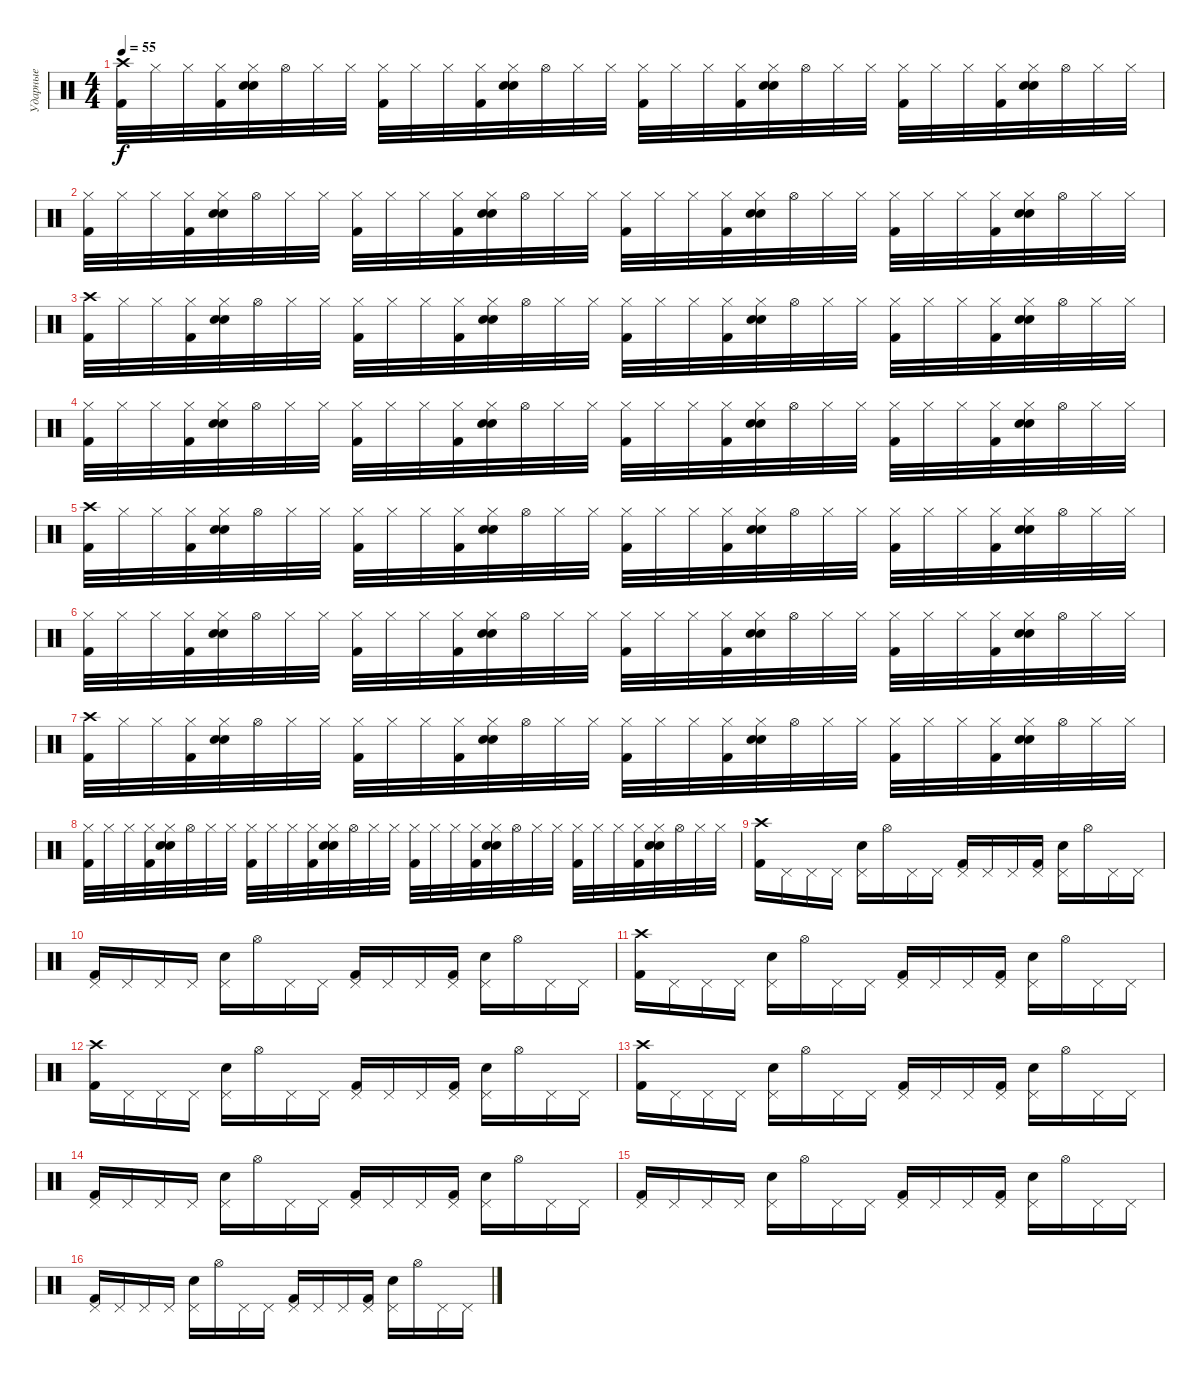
\track ("Ударные" "Ударные") {instrument percussion}
\staff {score}
\articulation defaults
\ts (4 4)
\tempo 55
\clef neutral
\ks c
("Crash high (hit)" "Kick (hit) 2").32{dy f} "Hi-Hat (closed)".32 "Hi-Hat (closed)".32 ("Hi-Hat (closed)" "Kick (hit) 2").32 ("Hi-Hat (closed)" "Snare (hit) 2" "Electric Snare (hit)").32 "Hi-Hat (open)".32 "Hi-Hat (closed)".32 "Hi-Hat (closed)".32 ("Hi-Hat (closed)" "Kick (hit) 2").32 "Hi-Hat (closed)".32 "Hi-Hat (closed)".32 ("Hi-Hat (closed)" "Kick (hit) 2").32 ("Hi-Hat (closed)" "Snare (hit) 2" "Electric Snare (hit)").32 "Hi-Hat (open)".32 "Hi-Hat (closed)".32 "Hi-Hat (closed)".32 ("Hi-Hat (closed)" "Kick (hit) 2").32 "Hi-Hat (closed)".32 "Hi-Hat (closed)".32 ("Hi-Hat (closed)" "Kick (hit) 2").32 ("Hi-Hat (closed)" "Snare (hit) 2" "Electric Snare (hit)").32 "Hi-Hat (open)".32 "Hi-Hat (closed)".32 "Hi-Hat (closed)".32 ("Hi-Hat (closed)" "Kick (hit) 2").32 "Hi-Hat (closed)".32 "Hi-Hat (closed)".32 ("Hi-Hat (closed)" "Kick (hit) 2").32 ("Hi-Hat (closed)" "Snare (hit) 2" "Electric Snare (hit)").32 "Hi-Hat (open)".32 "Hi-Hat (closed)".32 "Hi-Hat (closed)".32 |
("Hi-Hat (closed)" "Kick (hit) 2").32 "Hi-Hat (closed)".32 "Hi-Hat (closed)".32 ("Hi-Hat (closed)" "Kick (hit) 2").32 ("Hi-Hat (closed)" "Snare (hit) 2" "Electric Snare (hit)").32 "Hi-Hat (open)".32 "Hi-Hat (closed)".32 "Hi-Hat (closed)".32 ("Hi-Hat (closed)" "Kick (hit) 2").32 "Hi-Hat (closed)".32 "Hi-Hat (closed)".32 ("Hi-Hat (closed)" "Kick (hit) 2").32 ("Hi-Hat (closed)" "Snare (hit) 2" "Electric Snare (hit)").32 "Hi-Hat (open)".32 "Hi-Hat (closed)".32 "Hi-Hat (closed)".32 ("Hi-Hat (closed)" "Kick (hit) 2").32 "Hi-Hat (closed)".32 "Hi-Hat (closed)".32 ("Hi-Hat (closed)" "Kick (hit) 2").32 ("Hi-Hat (closed)" "Snare (hit) 2" "Electric Snare (hit)").32 "Hi-Hat (open)".32 "Hi-Hat (closed)".32 "Hi-Hat (closed)".32 ("Hi-Hat (closed)" "Kick (hit) 2").32 "Hi-Hat (closed)".32 "Hi-Hat (closed)".32 ("Hi-Hat (closed)" "Kick (hit) 2").32 ("Hi-Hat (closed)" "Snare (hit) 2" "Electric Snare (hit)").32 "Hi-Hat (open)".32 "Hi-Hat (closed)".32 "Hi-Hat (closed)".32 |
("Crash high (hit)" "Kick (hit) 2").32 "Hi-Hat (closed)".32 "Hi-Hat (closed)".32 ("Hi-Hat (closed)" "Kick (hit) 2").32 ("Hi-Hat (closed)" "Snare (hit) 2" "Electric Snare (hit)").32 "Hi-Hat (open)".32 "Hi-Hat (closed)".32 "Hi-Hat (closed)".32 ("Hi-Hat (closed)" "Kick (hit) 2").32 "Hi-Hat (closed)".32 "Hi-Hat (closed)".32 ("Hi-Hat (closed)" "Kick (hit) 2").32 ("Hi-Hat (closed)" "Snare (hit) 2" "Electric Snare (hit)").32 "Hi-Hat (open)".32 "Hi-Hat (closed)".32 "Hi-Hat (closed)".32 ("Hi-Hat (closed)" "Kick (hit) 2").32 "Hi-Hat (closed)".32 "Hi-Hat (closed)".32 ("Hi-Hat (closed)" "Kick (hit) 2").32 ("Hi-Hat (closed)" "Snare (hit) 2" "Electric Snare (hit)").32 "Hi-Hat (open)".32 "Hi-Hat (closed)".32 "Hi-Hat (closed)".32 ("Hi-Hat (closed)" "Kick (hit) 2").32 "Hi-Hat (closed)".32 "Hi-Hat (closed)".32 ("Hi-Hat (closed)" "Kick (hit) 2").32 ("Hi-Hat (closed)" "Snare (hit) 2" "Electric Snare (hit)").32 "Hi-Hat (open)".32 "Hi-Hat (closed)".32 "Hi-Hat (closed)".32 |
("Hi-Hat (closed)" "Kick (hit) 2").32 "Hi-Hat (closed)".32 "Hi-Hat (closed)".32 ("Hi-Hat (closed)" "Kick (hit) 2").32 ("Hi-Hat (closed)" "Snare (hit) 2" "Electric Snare (hit)").32 "Hi-Hat (open)".32 "Hi-Hat (closed)".32 "Hi-Hat (closed)".32 ("Hi-Hat (closed)" "Kick (hit) 2").32 "Hi-Hat (closed)".32 "Hi-Hat (closed)".32 ("Hi-Hat (closed)" "Kick (hit) 2").32 ("Hi-Hat (closed)" "Snare (hit) 2" "Electric Snare (hit)").32 "Hi-Hat (open)".32 "Hi-Hat (closed)".32 "Hi-Hat (closed)".32 ("Hi-Hat (closed)" "Kick (hit) 2").32 "Hi-Hat (closed)".32 "Hi-Hat (closed)".32 ("Hi-Hat (closed)" "Kick (hit) 2").32 ("Hi-Hat (closed)" "Snare (hit) 2" "Electric Snare (hit)").32 "Hi-Hat (open)".32 "Hi-Hat (closed)".32 "Hi-Hat (closed)".32 ("Hi-Hat (closed)" "Kick (hit) 2").32 "Hi-Hat (closed)".32 "Hi-Hat (closed)".32 ("Hi-Hat (closed)" "Kick (hit) 2").32 ("Hi-Hat (closed)" "Snare (hit) 2" "Electric Snare (hit)").32 "Hi-Hat (open)".32 "Hi-Hat (closed)".32 "Hi-Hat (closed)".32 |
("Crash high (hit)" "Kick (hit) 2").32 "Hi-Hat (closed)".32 "Hi-Hat (closed)".32 ("Hi-Hat (closed)" "Kick (hit) 2").32 ("Hi-Hat (closed)" "Snare (hit) 2" "Electric Snare (hit)").32 "Hi-Hat (open)".32 "Hi-Hat (closed)".32 "Hi-Hat (closed)".32 ("Hi-Hat (closed)" "Kick (hit) 2").32 "Hi-Hat (closed)".32 "Hi-Hat (closed)".32 ("Hi-Hat (closed)" "Kick (hit) 2").32 ("Hi-Hat (closed)" "Snare (hit) 2" "Electric Snare (hit)").32 "Hi-Hat (open)".32 "Hi-Hat (closed)".32 "Hi-Hat (closed)".32 ("Hi-Hat (closed)" "Kick (hit) 2").32 "Hi-Hat (closed)".32 "Hi-Hat (closed)".32 ("Hi-Hat (closed)" "Kick (hit) 2").32 ("Hi-Hat (closed)" "Snare (hit) 2" "Electric Snare (hit)").32 "Hi-Hat (open)".32 "Hi-Hat (closed)".32 "Hi-Hat (closed)".32 ("Hi-Hat (closed)" "Kick (hit) 2").32 "Hi-Hat (closed)".32 "Hi-Hat (closed)".32 ("Hi-Hat (closed)" "Kick (hit) 2").32 ("Hi-Hat (closed)" "Snare (hit) 2" "Electric Snare (hit)").32 "Hi-Hat (open)".32 "Hi-Hat (closed)".32 "Hi-Hat (closed)".32 |
("Hi-Hat (closed)" "Kick (hit) 2").32 "Hi-Hat (closed)".32 "Hi-Hat (closed)".32 ("Hi-Hat (closed)" "Kick (hit) 2").32 ("Hi-Hat (closed)" "Snare (hit) 2" "Electric Snare (hit)").32 "Hi-Hat (open)".32 "Hi-Hat (closed)".32 "Hi-Hat (closed)".32 ("Hi-Hat (closed)" "Kick (hit) 2").32 "Hi-Hat (closed)".32 "Hi-Hat (closed)".32 ("Hi-Hat (closed)" "Kick (hit) 2").32 ("Hi-Hat (closed)" "Snare (hit) 2" "Electric Snare (hit)").32 "Hi-Hat (open)".32 "Hi-Hat (closed)".32 "Hi-Hat (closed)".32 ("Hi-Hat (closed)" "Kick (hit) 2").32 "Hi-Hat (closed)".32 "Hi-Hat (closed)".32 ("Hi-Hat (closed)" "Kick (hit) 2").32 ("Hi-Hat (closed)" "Snare (hit) 2" "Electric Snare (hit)").32 "Hi-Hat (open)".32 "Hi-Hat (closed)".32 "Hi-Hat (closed)".32 ("Hi-Hat (closed)" "Kick (hit) 2").32 "Hi-Hat (closed)".32 "Hi-Hat (closed)".32 ("Hi-Hat (closed)" "Kick (hit) 2").32 ("Hi-Hat (closed)" "Snare (hit) 2" "Electric Snare (hit)").32 "Hi-Hat (open)".32 "Hi-Hat (closed)".32 "Hi-Hat (closed)".32 |
("Crash high (hit)" "Kick (hit) 2").32 "Hi-Hat (closed)".32 "Hi-Hat (closed)".32 ("Hi-Hat (closed)" "Kick (hit) 2").32 ("Hi-Hat (closed)" "Snare (hit) 2" "Electric Snare (hit)").32 "Hi-Hat (open)".32 "Hi-Hat (closed)".32 "Hi-Hat (closed)".32 ("Hi-Hat (closed)" "Kick (hit) 2").32 "Hi-Hat (closed)".32 "Hi-Hat (closed)".32 ("Hi-Hat (closed)" "Kick (hit) 2").32 ("Hi-Hat (closed)" "Snare (hit) 2" "Electric Snare (hit)").32 "Hi-Hat (open)".32 "Hi-Hat (closed)".32 "Hi-Hat (closed)".32 ("Hi-Hat (closed)" "Kick (hit) 2").32 "Hi-Hat (closed)".32 "Hi-Hat (closed)".32 ("Hi-Hat (closed)" "Kick (hit) 2").32 ("Hi-Hat (closed)" "Snare (hit) 2" "Electric Snare (hit)").32 "Hi-Hat (open)".32 "Hi-Hat (closed)".32 "Hi-Hat (closed)".32 ("Hi-Hat (closed)" "Kick (hit) 2").32 "Hi-Hat (closed)".32 "Hi-Hat (closed)".32 ("Hi-Hat (closed)" "Kick (hit) 2").32 ("Hi-Hat (closed)" "Snare (hit) 2" "Electric Snare (hit)").32 "Hi-Hat (open)".32 "Hi-Hat (closed)".32 "Hi-Hat (closed)".32 |
("Hi-Hat (closed)" "Kick (hit) 2").32 "Hi-Hat (closed)".32 "Hi-Hat (closed)".32 ("Hi-Hat (closed)" "Kick (hit) 2").32 ("Hi-Hat (closed)" "Snare (hit) 2" "Electric Snare (hit)").32 "Hi-Hat (open)".32 "Hi-Hat (closed)".32 "Hi-Hat (closed)".32 ("Hi-Hat (closed)" "Kick (hit) 2").32 "Hi-Hat (closed)".32 "Hi-Hat (closed)".32 ("Hi-Hat (closed)" "Kick (hit) 2").32 ("Hi-Hat (closed)" "Snare (hit) 2" "Electric Snare (hit)").32 "Hi-Hat (open)".32 "Hi-Hat (closed)".32 "Hi-Hat (closed)".32 ("Hi-Hat (closed)" "Kick (hit) 2").32 "Hi-Hat (closed)".32 "Hi-Hat (closed)".32 ("Hi-Hat (closed)" "Kick (hit) 2").32 ("Hi-Hat (closed)" "Snare (hit) 2" "Electric Snare (hit)").32 "Hi-Hat (open)".32 "Hi-Hat (closed)".32 "Hi-Hat (closed)".32 ("Hi-Hat (closed)" "Kick (hit) 2").32 "Hi-Hat (closed)".32 "Hi-Hat (closed)".32 ("Hi-Hat (closed)" "Kick (hit) 2").32 ("Hi-Hat (closed)" "Snare (hit) 2" "Electric Snare (hit)").32 "Hi-Hat (open)".32 "Hi-Hat (closed)".32 "Hi-Hat (closed)".32 |
("Crash high (hit)" "Kick (hit) 2").16 "Pedal Hi-Hat (hit)".16 "Pedal Hi-Hat (hit)".16 "Pedal Hi-Hat (hit)".16 ("Pedal Hi-Hat (hit)" "Electric Snare (hit)").16 "Hi-Hat (open)".16 "Pedal Hi-Hat (hit)".16 "Pedal Hi-Hat (hit)".16 ("Pedal Hi-Hat (hit)" "Kick (hit) 2").16 "Pedal Hi-Hat (hit)".16 "Pedal Hi-Hat (hit)".16 ("Pedal Hi-Hat (hit)" "Kick (hit) 2").16 ("Pedal Hi-Hat (hit)" "Electric Snare (hit)").16 "Hi-Hat (open)".16 "Pedal Hi-Hat (hit)".16 "Pedal Hi-Hat (hit)".16 |
("Pedal Hi-Hat (hit)" "Kick (hit) 2").16 "Pedal Hi-Hat (hit)".16 "Pedal Hi-Hat (hit)".16 "Pedal Hi-Hat (hit)".16 ("Pedal Hi-Hat (hit)" "Electric Snare (hit)").16 "Hi-Hat (open)".16 "Pedal Hi-Hat (hit)".16 "Pedal Hi-Hat (hit)".16 ("Pedal Hi-Hat (hit)" "Kick (hit) 2").16 "Pedal Hi-Hat (hit)".16 "Pedal Hi-Hat (hit)".16 ("Pedal Hi-Hat (hit)" "Kick (hit) 2").16 ("Pedal Hi-Hat (hit)" "Electric Snare (hit)").16 "Hi-Hat (open)".16 "Pedal Hi-Hat (hit)".16 "Pedal Hi-Hat (hit)".16 |
("Crash high (hit)" "Kick (hit) 2").16 "Pedal Hi-Hat (hit)".16 "Pedal Hi-Hat (hit)".16 "Pedal Hi-Hat (hit)".16 ("Pedal Hi-Hat (hit)" "Electric Snare (hit)").16 "Hi-Hat (open)".16 "Pedal Hi-Hat (hit)".16 "Pedal Hi-Hat (hit)".16 ("Pedal Hi-Hat (hit)" "Kick (hit) 2").16 "Pedal Hi-Hat (hit)".16 "Pedal Hi-Hat (hit)".16 ("Pedal Hi-Hat (hit)" "Kick (hit) 2").16 ("Pedal Hi-Hat (hit)" "Electric Snare (hit)").16 "Hi-Hat (open)".16 "Pedal Hi-Hat (hit)".16 "Pedal Hi-Hat (hit)".16 |
("Crash high (hit)" "Kick (hit) 2").16 "Pedal Hi-Hat (hit)".16 "Pedal Hi-Hat (hit)".16 "Pedal Hi-Hat (hit)".16 ("Pedal Hi-Hat (hit)" "Electric Snare (hit)").16 "Hi-Hat (open)".16 "Pedal Hi-Hat (hit)".16 "Pedal Hi-Hat (hit)".16 ("Pedal Hi-Hat (hit)" "Kick (hit) 2").16 "Pedal Hi-Hat (hit)".16 "Pedal Hi-Hat (hit)".16 ("Pedal Hi-Hat (hit)" "Kick (hit) 2").16 ("Pedal Hi-Hat (hit)" "Electric Snare (hit)").16 "Hi-Hat (open)".16 "Pedal Hi-Hat (hit)".16 "Pedal Hi-Hat (hit)".16 |
("Crash high (hit)" "Kick (hit) 2").16 "Pedal Hi-Hat (hit)".16 "Pedal Hi-Hat (hit)".16 "Pedal Hi-Hat (hit)".16 ("Pedal Hi-Hat (hit)" "Electric Snare (hit)").16 "Hi-Hat (open)".16 "Pedal Hi-Hat (hit)".16 "Pedal Hi-Hat (hit)".16 ("Pedal Hi-Hat (hit)" "Kick (hit) 2").16 "Pedal Hi-Hat (hit)".16 "Pedal Hi-Hat (hit)".16 ("Pedal Hi-Hat (hit)" "Kick (hit) 2").16 ("Pedal Hi-Hat (hit)" "Electric Snare (hit)").16 "Hi-Hat (open)".16 "Pedal Hi-Hat (hit)".16 "Pedal Hi-Hat (hit)".16 |
("Pedal Hi-Hat (hit)" "Kick (hit) 2").16 "Pedal Hi-Hat (hit)".16 "Pedal Hi-Hat (hit)".16 "Pedal Hi-Hat (hit)".16 ("Pedal Hi-Hat (hit)" "Electric Snare (hit)").16 "Hi-Hat (open)".16 "Pedal Hi-Hat (hit)".16 "Pedal Hi-Hat (hit)".16 ("Pedal Hi-Hat (hit)" "Kick (hit) 2").16 "Pedal Hi-Hat (hit)".16 "Pedal Hi-Hat (hit)".16 ("Pedal Hi-Hat (hit)" "Kick (hit) 2").16 ("Pedal Hi-Hat (hit)" "Electric Snare (hit)").16 "Hi-Hat (open)".16 "Pedal Hi-Hat (hit)".16 "Pedal Hi-Hat (hit)".16 |
("Pedal Hi-Hat (hit)" "Kick (hit) 2").16 "Pedal Hi-Hat (hit)".16 "Pedal Hi-Hat (hit)".16 "Pedal Hi-Hat (hit)".16 ("Pedal Hi-Hat (hit)" "Electric Snare (hit)").16 "Hi-Hat (open)".16 "Pedal Hi-Hat (hit)".16 "Pedal Hi-Hat (hit)".16 ("Pedal Hi-Hat (hit)" "Kick (hit) 2").16 "Pedal Hi-Hat (hit)".16 "Pedal Hi-Hat (hit)".16 ("Pedal Hi-Hat (hit)" "Kick (hit) 2").16 ("Pedal Hi-Hat (hit)" "Electric Snare (hit)").16 "Hi-Hat (open)".16 "Pedal Hi-Hat (hit)".16 "Pedal Hi-Hat (hit)".16 |
("Pedal Hi-Hat (hit)" "Kick (hit) 2").16 "Pedal Hi-Hat (hit)".16 "Pedal Hi-Hat (hit)".16 "Pedal Hi-Hat (hit)".16 ("Pedal Hi-Hat (hit)" "Electric Snare (hit)").16 "Hi-Hat (open)".16 "Pedal Hi-Hat (hit)".16 "Pedal Hi-Hat (hit)".16 ("Pedal Hi-Hat (hit)" "Kick (hit) 2").16 "Pedal Hi-Hat (hit)".16 "Pedal Hi-Hat (hit)".16 ("Pedal Hi-Hat (hit)" "Kick (hit) 2").16 ("Pedal Hi-Hat (hit)" "Electric Snare (hit)").16 "Hi-Hat (open)".16 "Pedal Hi-Hat (hit)".16 "Pedal Hi-Hat (hit)".16
